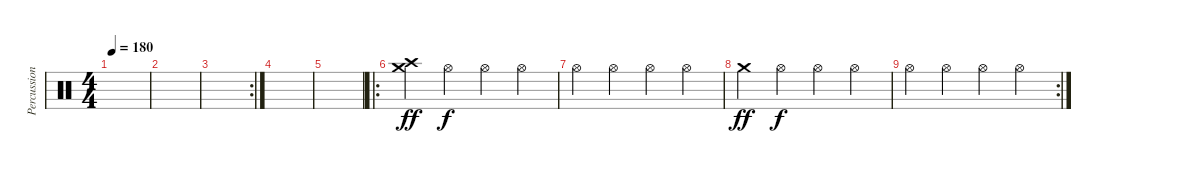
\track ("Percussion (Francisco Izquierdo)" "Percussion") {instrument percussion}
\staff {score}
\articulation defaults
\ts (4 4)
\tempo 180
\clef neutral
\ks c
|
|
\rc 2
|
|
|
\ro
("Crash high (hit)" "Crash medium (hit)").4{dy ff} "Hi-Hat (open)".4{dy f} "Hi-Hat (open)".4 "Hi-Hat (open)".4 |
"Hi-Hat (open)".4 "Hi-Hat (open)".4 "Hi-Hat (open)".4 "Hi-Hat (open)".4 |
"Crash medium (hit)".4{dy ff} "Hi-Hat (open)".4{dy f} "Hi-Hat (open)".4 "Hi-Hat (open)".4 |
\rc 2 "Hi-Hat (open)".4 "Hi-Hat (open)".4 "Hi-Hat (open)".4 "Hi-Hat (open)".4
